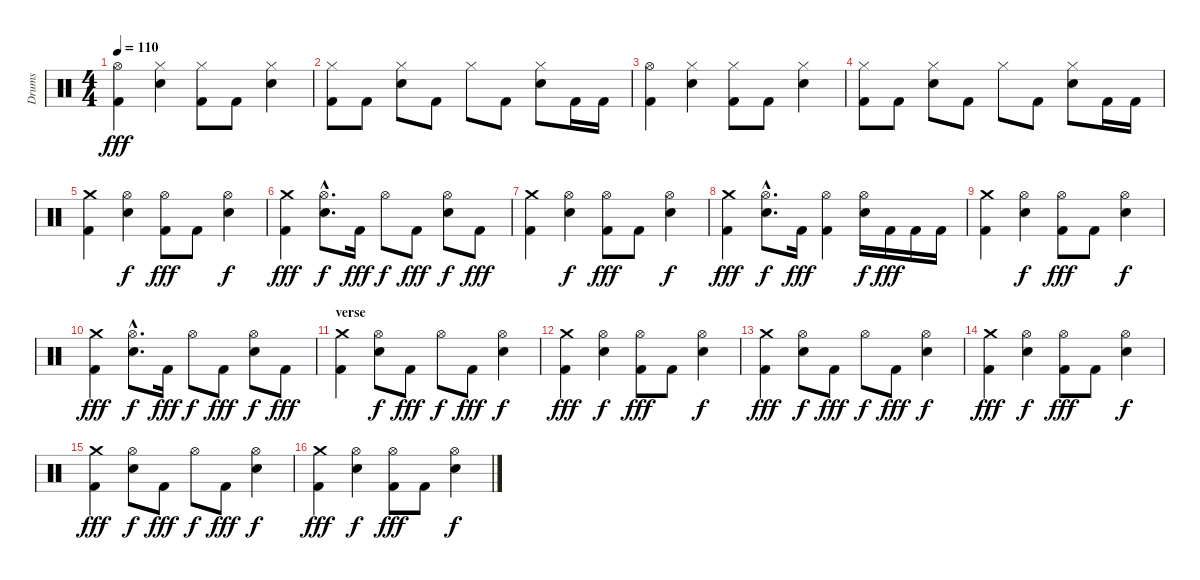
\track ("Drums" "Drums") {instrument percussion}
\staff {score}
\articulation defaults
\ts (4 4)
\tempo 110
\clef neutral
\ks c
("Hi-Hat (open)" "Kick (hit) 2").4{dy fff} ("Hi-Hat (closed)" "Electric Snare (hit)").4 ("Hi-Hat (closed)" "Kick (hit) 2").8 "Kick (hit) 2".8 ("Hi-Hat (closed)" "Electric Snare (hit)").4 |
("Hi-Hat (closed)" "Kick (hit) 2").8 "Kick (hit) 2".8 ("Hi-Hat (closed)" "Electric Snare (hit)").8 "Kick (hit) 2".8 "Hi-Hat (closed)".8 "Kick (hit) 2".8 ("Hi-Hat (closed)" "Electric Snare (hit)").8 "Kick (hit) 2".16 "Kick (hit) 2".16 |
("Hi-Hat (open)" "Kick (hit) 2").4 ("Hi-Hat (closed)" "Electric Snare (hit)").4 ("Hi-Hat (closed)" "Kick (hit) 2").8 "Kick (hit) 2".8 ("Hi-Hat (closed)" "Electric Snare (hit)").4 |
("Hi-Hat (closed)" "Kick (hit) 2").8 "Kick (hit) 2".8 ("Hi-Hat (closed)" "Electric Snare (hit)").8 "Kick (hit) 2".8 "Hi-Hat (closed)".8 "Kick (hit) 2".8 ("Hi-Hat (closed)" "Electric Snare (hit)").8 "Kick (hit) 2".16 "Kick (hit) 2".16 |
("Crash medium (hit)" "Kick (hit) 2").4 ("Hi-Hat (open)" "Electric Snare (hit)").4{dy f} ("Hi-Hat (open)" "Kick (hit) 2").8{dy fff} "Kick (hit) 2".8 ("Hi-Hat (open)" "Electric Snare (hit)").4{dy f} |
("Crash medium (hit)" "Kick (hit) 2").4{dy fff} ("Hi-Hat (open)"{hac} "Electric Snare (hit)"{hac}).8{d dy f} "Kick (hit) 2".16{dy fff} "Hi-Hat (open)".8{dy f} "Kick (hit) 2".8{dy fff} ("Hi-Hat (open)" "Electric Snare (hit)").8{dy f} "Kick (hit) 2".8{dy fff} |
("Crash medium (hit)" "Kick (hit) 2").4 ("Hi-Hat (open)" "Electric Snare (hit)").4{dy f} ("Hi-Hat (open)" "Kick (hit) 2").8{dy fff} "Kick (hit) 2".8 ("Hi-Hat (open)" "Electric Snare (hit)").4{dy f} |
("Crash medium (hit)" "Kick (hit) 2").4{dy fff} ("Hi-Hat (open)"{hac} "Electric Snare (hit)"{hac}).8{d dy f} "Kick (hit) 2".16{dy fff} ("Hi-Hat (open)" "Kick (hit) 2").4 ("Hi-Hat (open)" "Electric Snare (hit)").16{dy f} "Kick (hit) 2".16{dy fff} "Kick (hit) 2".16 "Kick (hit) 2".16 |
("Crash medium (hit)" "Kick (hit) 2").4 ("Hi-Hat (open)" "Electric Snare (hit)").4{dy f} ("Hi-Hat (open)" "Kick (hit) 2").8{dy fff} "Kick (hit) 2".8 ("Hi-Hat (open)" "Electric Snare (hit)").4{dy f} |
("Crash medium (hit)" "Kick (hit) 2").4{dy fff} ("Hi-Hat (open)"{hac} "Electric Snare (hit)"{hac}).8{d dy f} "Kick (hit) 2".16{dy fff} "Hi-Hat (open)".8{dy f} "Kick (hit) 2".8{dy fff} ("Hi-Hat (open)" "Electric Snare (hit)").8{dy f} "Kick (hit) 2".8{dy fff} |
\section ("" "verse")
("Crash medium (hit)" "Kick (hit) 2").4 ("Hi-Hat (open)" "Electric Snare (hit)").8{dy f} "Kick (hit) 2".8{dy fff} "Hi-Hat (open)".8{dy f} "Kick (hit) 2".8{dy fff} ("Hi-Hat (open)" "Electric Snare (hit)").4{dy f} |
("Crash medium (hit)" "Kick (hit) 2").4{dy fff} ("Hi-Hat (open)" "Electric Snare (hit)").4{dy f} ("Hi-Hat (open)" "Kick (hit) 2").8{dy fff} "Kick (hit) 2".8 ("Hi-Hat (open)" "Electric Snare (hit)").4{dy f} |
("Crash medium (hit)" "Kick (hit) 2").4{dy fff} ("Hi-Hat (open)" "Electric Snare (hit)").8{dy f} "Kick (hit) 2".8{dy fff} "Hi-Hat (open)".8{dy f} "Kick (hit) 2".8{dy fff} ("Hi-Hat (open)" "Electric Snare (hit)").4{dy f} |
("Crash medium (hit)" "Kick (hit) 2").4{dy fff} ("Hi-Hat (open)" "Electric Snare (hit)").4{dy f} ("Hi-Hat (open)" "Kick (hit) 2").8{dy fff} "Kick (hit) 2".8 ("Hi-Hat (open)" "Electric Snare (hit)").4{dy f} |
("Crash medium (hit)" "Kick (hit) 2").4{dy fff} ("Hi-Hat (open)" "Electric Snare (hit)").8{dy f} "Kick (hit) 2".8{dy fff} "Hi-Hat (open)".8{dy f} "Kick (hit) 2".8{dy fff} ("Hi-Hat (open)" "Electric Snare (hit)").4{dy f} |
("Crash medium (hit)" "Kick (hit) 2").4{dy fff} ("Hi-Hat (open)" "Electric Snare (hit)").4{dy f} ("Hi-Hat (open)" "Kick (hit) 2").8{dy fff} "Kick (hit) 2".8 ("Hi-Hat (open)" "Electric Snare (hit)").4{dy f}
